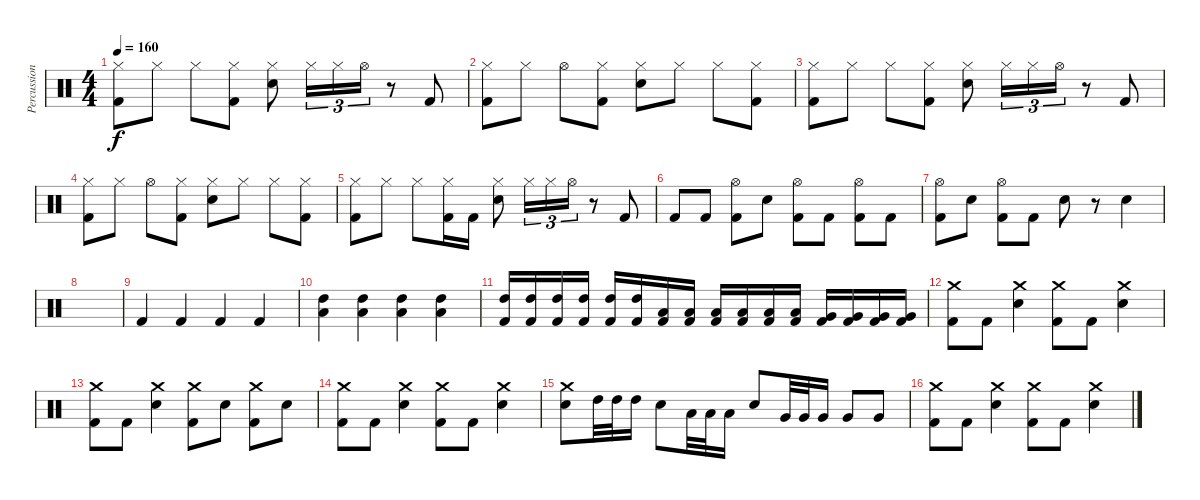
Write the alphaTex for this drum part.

\track ("Percussion" "Percussion") {instrument percussion}
\staff {score}
\articulation defaults
\ts (4 4)
\tempo 160
\clef neutral
\ks c
("Kick (hit) 2" "Hi-Hat (closed)").8{dy f} "Hi-Hat (closed)".8 "Hi-Hat (closed)".8 ("Kick (hit) 2" "Hi-Hat (closed)").8 ("Snare (hit) 2" "Hi-Hat (closed)").8 "Hi-Hat (closed)".16{tu (3 2)} "Hi-Hat (closed)".16{tu (3 2)} "Hi-Hat (open)".16{tu (3 2)} r.8 "Kick (hit) 2".8 |
("Kick (hit) 2" "Hi-Hat (closed)").8 "Hi-Hat (closed)".8 "Hi-Hat (open)".8 ("Kick (hit) 2" "Hi-Hat (closed)").8 ("Snare (hit) 2" "Hi-Hat (closed)").8 "Hi-Hat (closed)".8 "Hi-Hat (closed)".8 ("Kick (hit) 2" "Hi-Hat (closed)").8 |
("Kick (hit) 2" "Hi-Hat (closed)").8 "Hi-Hat (closed)".8 "Hi-Hat (closed)".8 ("Kick (hit) 2" "Hi-Hat (closed)").8 ("Snare (hit) 2" "Hi-Hat (closed)").8 "Hi-Hat (closed)".16{tu (3 2)} "Hi-Hat (closed)".16{tu (3 2)} "Hi-Hat (open)".16{tu (3 2)} r.8 "Kick (hit) 2".8 |
("Kick (hit) 2" "Hi-Hat (closed)").8 "Hi-Hat (closed)".8 "Hi-Hat (open)".8 ("Kick (hit) 2" "Hi-Hat (closed)").8 ("Snare (hit) 2" "Hi-Hat (closed)").8 "Hi-Hat (closed)".8 "Hi-Hat (closed)".8 ("Kick (hit) 2" "Hi-Hat (closed)").8 |
("Kick (hit) 2" "Hi-Hat (closed)").8 "Hi-Hat (closed)".8 "Hi-Hat (closed)".8 ("Kick (hit) 2" "Hi-Hat (closed)").16 "Kick (hit) 2".16 ("Snare (hit) 2" "Hi-Hat (closed)").8 "Hi-Hat (closed)".16{tu (3 2)} "Hi-Hat (closed)".16{tu (3 2)} "Hi-Hat (open)".16{tu (3 2)} r.8 "Kick (hit) 2".8 |
"Kick (hit) 2".8 "Kick (hit) 2".8 ("Kick (hit) 2" "Hi-Hat (open)").8 "Snare (hit) 2".8 ("Kick (hit) 2" "Hi-Hat (open)").8 "Kick (hit) 2".8 ("Kick (hit) 2" "Hi-Hat (open)").8 "Kick (hit) 2".8 |
("Kick (hit) 2" "Hi-Hat (open)").8 "Snare (hit) 2".8 ("Kick (hit) 2" "Hi-Hat (open)").8 "Kick (hit) 2".8 "Snare (hit) 2".8 r.8 "Snare (hit) 2".4 |
|
"Kick (hit) 2".4 "Kick (hit) 2".4 "Kick (hit) 2".4 "Kick (hit) 2".4 |
("Low Tom (hit)" "High Tom (hit)").4 ("Low Tom (hit)" "High Tom (hit)").4 ("Low Tom (hit)" "High Tom (hit)").4 ("Low Tom (hit)" "High Tom (hit)").4 |
("High Tom (hit)" "Kick (hit) 2").16 ("High Tom (hit)" "Kick (hit) 2").16 ("High Tom (hit)" "Kick (hit) 2").16 ("High Tom (hit)" "Kick (hit) 2").16 ("High Tom (hit)" "Kick (hit) 2").16 ("High Tom (hit)" "Kick (hit) 2").16 ("Low Tom (hit)" "Kick (hit) 2").16 ("Low Tom (hit)" "Kick (hit) 2").16 ("Low Tom (hit)" "Kick (hit) 2").16 ("Low Tom (hit)" "Kick (hit) 2").16 ("Low Tom (hit)" "Kick (hit) 2").16 ("Low Tom (hit)" "Kick (hit) 2").16 ("Very Low Tom (hit)" "Kick (hit) 2").16 ("Very Low Tom (hit)" "Kick (hit) 2").16 ("Very Low Tom (hit)" "Kick (hit) 2").16 ("Very Low Tom (hit)" "Kick (hit) 2").16 |
("Kick (hit) 2" "Crash medium (hit)").8 "Kick (hit) 2".8 ("Snare (hit) 2" "Crash medium (hit)").4 ("Kick (hit) 2" "Crash medium (hit)").8 "Kick (hit) 2".8 ("Snare (hit) 2" "Crash medium (hit)").4 |
("Kick (hit) 2" "Crash medium (hit)").8 "Kick (hit) 2".8 ("Snare (hit) 2" "Crash medium (hit)").4 ("Kick (hit) 2" "Crash medium (hit)").8 "Snare (hit) 2".8 ("Kick (hit) 2" "Crash medium (hit)").8 "Snare (hit) 2".8 |
("Kick (hit) 2" "Crash medium (hit)").8 "Kick (hit) 2".8 ("Snare (hit) 2" "Crash medium (hit)").4 ("Kick (hit) 2" "Crash medium (hit)").8 "Kick (hit) 2".8 ("Snare (hit) 2" "Crash medium (hit)").4 |
("Snare (hit) 2" "Crash medium (hit)").8 "High Tom (hit)".32 "High Tom (hit)".32 "High Tom (hit)".16 "Snare (hit) 2".8 "Low Tom (hit)".32 "Low Tom (hit)".32 "Low Tom (hit)".16 "Snare (hit) 2".8 "Very Low Tom (hit)".32 "Very Low Tom (hit)".32 "Very Low Tom (hit)".16 "Very Low Tom (hit)".8 "Very Low Tom (hit)".8 |
("Kick (hit) 2" "Crash medium (hit)").8 "Kick (hit) 2".8 ("Snare (hit) 2" "Crash medium (hit)").4 ("Kick (hit) 2" "Crash medium (hit)").8 "Kick (hit) 2".8 ("Snare (hit) 2" "Crash medium (hit)").4
